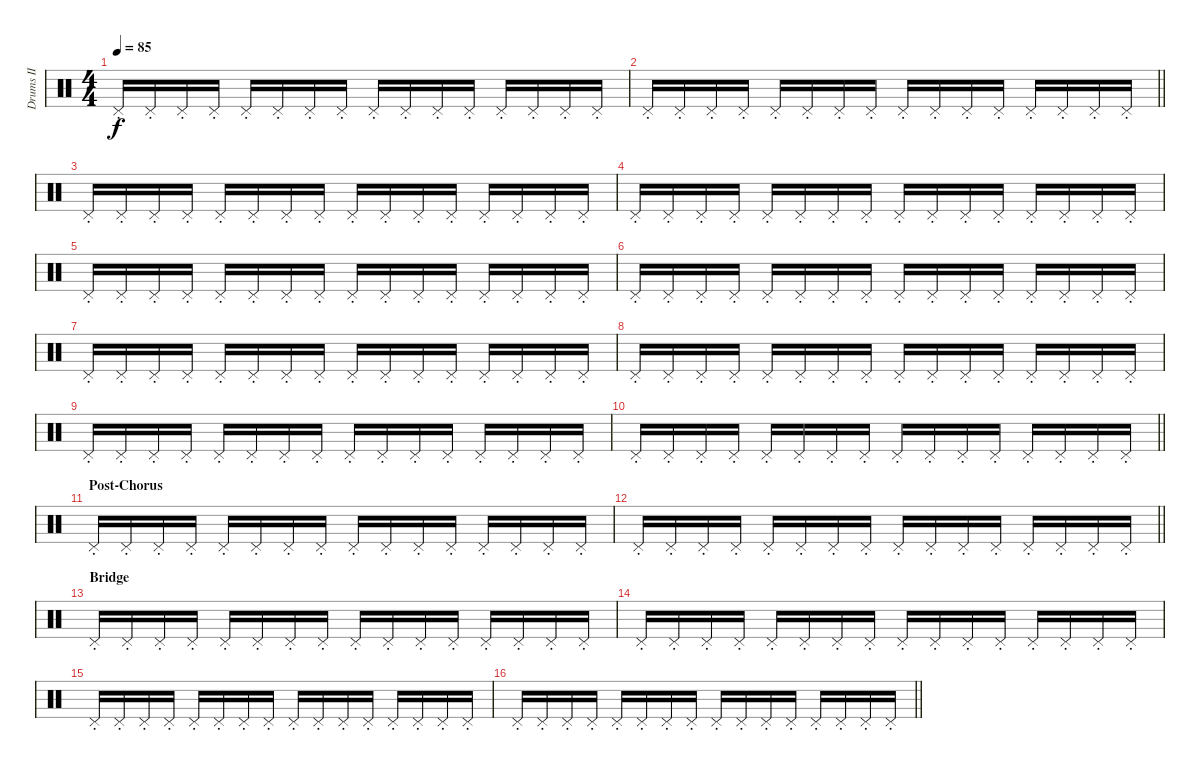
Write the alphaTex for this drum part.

\track ("Drums II" "Drums II") {instrument percussion}
\staff {score}
\articulation defaults
\ts (4 4)
\tempo 85
\clef neutral
\ks c "Pedal Hi-Hat (hit)"{st}.16{dy f} "Pedal Hi-Hat (hit)"{st}.16 "Pedal Hi-Hat (hit)"{st}.16 "Pedal Hi-Hat (hit)"{st}.16 "Pedal Hi-Hat (hit)"{st}.16 "Pedal Hi-Hat (hit)"{st}.16 "Pedal Hi-Hat (hit)"{st}.16 "Pedal Hi-Hat (hit)"{st}.16 "Pedal Hi-Hat (hit)"{st}.16 "Pedal Hi-Hat (hit)"{st}.16 "Pedal Hi-Hat (hit)"{st}.16 "Pedal Hi-Hat (hit)"{st}.16 "Pedal Hi-Hat (hit)"{st}.16 "Pedal Hi-Hat (hit)"{st}.16 "Pedal Hi-Hat (hit)"{st}.16 "Pedal Hi-Hat (hit)"{st}.16
|
\barLineRight lightlight "Pedal Hi-Hat (hit)"{st}.16 "Pedal Hi-Hat (hit)"{st}.16 "Pedal Hi-Hat (hit)"{st}.16 "Pedal Hi-Hat (hit)"{st}.16 "Pedal Hi-Hat (hit)"{st}.16 "Pedal Hi-Hat (hit)"{st}.16 "Pedal Hi-Hat (hit)"{st}.16 "Pedal Hi-Hat (hit)"{st}.16 "Pedal Hi-Hat (hit)"{st}.16 "Pedal Hi-Hat (hit)"{st}.16 "Pedal Hi-Hat (hit)"{st}.16 "Pedal Hi-Hat (hit)"{st}.16 "Pedal Hi-Hat (hit)"{st}.16 "Pedal Hi-Hat (hit)"{st}.16 "Pedal Hi-Hat (hit)"{st}.16 "Pedal Hi-Hat (hit)"{st}.16
|
"Pedal Hi-Hat (hit)"{st}.16 "Pedal Hi-Hat (hit)"{st}.16 "Pedal Hi-Hat (hit)"{st}.16 "Pedal Hi-Hat (hit)"{st}.16 "Pedal Hi-Hat (hit)"{st}.16 "Pedal Hi-Hat (hit)"{st}.16 "Pedal Hi-Hat (hit)"{st}.16 "Pedal Hi-Hat (hit)"{st}.16 "Pedal Hi-Hat (hit)"{st}.16 "Pedal Hi-Hat (hit)"{st}.16 "Pedal Hi-Hat (hit)"{st}.16 "Pedal Hi-Hat (hit)"{st}.16 "Pedal Hi-Hat (hit)"{st}.16 "Pedal Hi-Hat (hit)"{st}.16 "Pedal Hi-Hat (hit)"{st}.16 "Pedal Hi-Hat (hit)"{st}.16 |
"Pedal Hi-Hat (hit)"{st}.16 "Pedal Hi-Hat (hit)"{st}.16 "Pedal Hi-Hat (hit)"{st}.16 "Pedal Hi-Hat (hit)"{st}.16 "Pedal Hi-Hat (hit)"{st}.16 "Pedal Hi-Hat (hit)"{st}.16 "Pedal Hi-Hat (hit)"{st}.16 "Pedal Hi-Hat (hit)"{st}.16 "Pedal Hi-Hat (hit)"{st}.16 "Pedal Hi-Hat (hit)"{st}.16 "Pedal Hi-Hat (hit)"{st}.16 "Pedal Hi-Hat (hit)"{st}.16 "Pedal Hi-Hat (hit)"{st}.16 "Pedal Hi-Hat (hit)"{st}.16 "Pedal Hi-Hat (hit)"{st}.16 "Pedal Hi-Hat (hit)"{st}.16 |
"Pedal Hi-Hat (hit)"{st}.16 "Pedal Hi-Hat (hit)"{st}.16 "Pedal Hi-Hat (hit)"{st}.16 "Pedal Hi-Hat (hit)"{st}.16 "Pedal Hi-Hat (hit)"{st}.16 "Pedal Hi-Hat (hit)"{st}.16 "Pedal Hi-Hat (hit)"{st}.16 "Pedal Hi-Hat (hit)"{st}.16 "Pedal Hi-Hat (hit)"{st}.16 "Pedal Hi-Hat (hit)"{st}.16 "Pedal Hi-Hat (hit)"{st}.16 "Pedal Hi-Hat (hit)"{st}.16 "Pedal Hi-Hat (hit)"{st}.16 "Pedal Hi-Hat (hit)"{st}.16 "Pedal Hi-Hat (hit)"{st}.16 "Pedal Hi-Hat (hit)"{st}.16 |
"Pedal Hi-Hat (hit)"{st}.16 "Pedal Hi-Hat (hit)"{st}.16 "Pedal Hi-Hat (hit)"{st}.16 "Pedal Hi-Hat (hit)"{st}.16 "Pedal Hi-Hat (hit)"{st}.16 "Pedal Hi-Hat (hit)"{st}.16 "Pedal Hi-Hat (hit)"{st}.16 "Pedal Hi-Hat (hit)"{st}.16 "Pedal Hi-Hat (hit)"{st}.16 "Pedal Hi-Hat (hit)"{st}.16 "Pedal Hi-Hat (hit)"{st}.16 "Pedal Hi-Hat (hit)"{st}.16 "Pedal Hi-Hat (hit)"{st}.16 "Pedal Hi-Hat (hit)"{st}.16 "Pedal Hi-Hat (hit)"{st}.16 "Pedal Hi-Hat (hit)"{st}.16 |
"Pedal Hi-Hat (hit)"{st}.16 "Pedal Hi-Hat (hit)"{st}.16 "Pedal Hi-Hat (hit)"{st}.16 "Pedal Hi-Hat (hit)"{st}.16 "Pedal Hi-Hat (hit)"{st}.16 "Pedal Hi-Hat (hit)"{st}.16 "Pedal Hi-Hat (hit)"{st}.16 "Pedal Hi-Hat (hit)"{st}.16 "Pedal Hi-Hat (hit)"{st}.16 "Pedal Hi-Hat (hit)"{st}.16 "Pedal Hi-Hat (hit)"{st}.16 "Pedal Hi-Hat (hit)"{st}.16 "Pedal Hi-Hat (hit)"{st}.16 "Pedal Hi-Hat (hit)"{st}.16 "Pedal Hi-Hat (hit)"{st}.16 "Pedal Hi-Hat (hit)"{st}.16 |
"Pedal Hi-Hat (hit)"{st}.16 "Pedal Hi-Hat (hit)"{st}.16 "Pedal Hi-Hat (hit)"{st}.16 "Pedal Hi-Hat (hit)"{st}.16 "Pedal Hi-Hat (hit)"{st}.16 "Pedal Hi-Hat (hit)"{st}.16 "Pedal Hi-Hat (hit)"{st}.16 "Pedal Hi-Hat (hit)"{st}.16 "Pedal Hi-Hat (hit)"{st}.16 "Pedal Hi-Hat (hit)"{st}.16 "Pedal Hi-Hat (hit)"{st}.16 "Pedal Hi-Hat (hit)"{st}.16 "Pedal Hi-Hat (hit)"{st}.16 "Pedal Hi-Hat (hit)"{st}.16 "Pedal Hi-Hat (hit)"{st}.16 "Pedal Hi-Hat (hit)"{st}.16 |
"Pedal Hi-Hat (hit)"{st}.16 "Pedal Hi-Hat (hit)"{st}.16 "Pedal Hi-Hat (hit)"{st}.16 "Pedal Hi-Hat (hit)"{st}.16 "Pedal Hi-Hat (hit)"{st}.16 "Pedal Hi-Hat (hit)"{st}.16 "Pedal Hi-Hat (hit)"{st}.16 "Pedal Hi-Hat (hit)"{st}.16 "Pedal Hi-Hat (hit)"{st}.16 "Pedal Hi-Hat (hit)"{st}.16 "Pedal Hi-Hat (hit)"{st}.16 "Pedal Hi-Hat (hit)"{st}.16 "Pedal Hi-Hat (hit)"{st}.16 "Pedal Hi-Hat (hit)"{st}.16 "Pedal Hi-Hat (hit)"{st}.16 "Pedal Hi-Hat (hit)"{st}.16 |
\barLineRight lightlight "Pedal Hi-Hat (hit)"{st}.16 "Pedal Hi-Hat (hit)"{st}.16 "Pedal Hi-Hat (hit)"{st}.16 "Pedal Hi-Hat (hit)"{st}.16 "Pedal Hi-Hat (hit)"{st}.16 "Pedal Hi-Hat (hit)"{st}.16 "Pedal Hi-Hat (hit)"{st}.16 "Pedal Hi-Hat (hit)"{st}.16 "Pedal Hi-Hat (hit)"{st}.16 "Pedal Hi-Hat (hit)"{st}.16 "Pedal Hi-Hat (hit)"{st}.16 "Pedal Hi-Hat (hit)"{st}.16 "Pedal Hi-Hat (hit)"{st}.16 "Pedal Hi-Hat (hit)"{st}.16 "Pedal Hi-Hat (hit)"{st}.16 "Pedal Hi-Hat (hit)"{st}.16
|
\section ("" "Post-Chorus")
"Pedal Hi-Hat (hit)"{st}.16 "Pedal Hi-Hat (hit)"{st}.16 "Pedal Hi-Hat (hit)"{st}.16 "Pedal Hi-Hat (hit)"{st}.16 "Pedal Hi-Hat (hit)"{st}.16 "Pedal Hi-Hat (hit)"{st}.16 "Pedal Hi-Hat (hit)"{st}.16 "Pedal Hi-Hat (hit)"{st}.16 "Pedal Hi-Hat (hit)"{st}.16 "Pedal Hi-Hat (hit)"{st}.16 "Pedal Hi-Hat (hit)"{st}.16 "Pedal Hi-Hat (hit)"{st}.16 "Pedal Hi-Hat (hit)"{st}.16 "Pedal Hi-Hat (hit)"{st}.16 "Pedal Hi-Hat (hit)"{st}.16 "Pedal Hi-Hat (hit)"{st}.16 |
\barLineRight lightlight "Pedal Hi-Hat (hit)"{st}.16 "Pedal Hi-Hat (hit)"{st}.16 "Pedal Hi-Hat (hit)"{st}.16 "Pedal Hi-Hat (hit)"{st}.16 "Pedal Hi-Hat (hit)"{st}.16 "Pedal Hi-Hat (hit)"{st}.16 "Pedal Hi-Hat (hit)"{st}.16 "Pedal Hi-Hat (hit)"{st}.16 "Pedal Hi-Hat (hit)"{st}.16 "Pedal Hi-Hat (hit)"{st}.16 "Pedal Hi-Hat (hit)"{st}.16 "Pedal Hi-Hat (hit)"{st}.16 "Pedal Hi-Hat (hit)"{st}.16 "Pedal Hi-Hat (hit)"{st}.16 "Pedal Hi-Hat (hit)"{st}.16 "Pedal Hi-Hat (hit)"{st}.16
|
\section ("" "Bridge")
"Pedal Hi-Hat (hit)"{st}.16 "Pedal Hi-Hat (hit)"{st}.16 "Pedal Hi-Hat (hit)"{st}.16 "Pedal Hi-Hat (hit)"{st}.16 "Pedal Hi-Hat (hit)"{st}.16 "Pedal Hi-Hat (hit)"{st}.16 "Pedal Hi-Hat (hit)"{st}.16 "Pedal Hi-Hat (hit)"{st}.16 "Pedal Hi-Hat (hit)"{st}.16 "Pedal Hi-Hat (hit)"{st}.16 "Pedal Hi-Hat (hit)"{st}.16 "Pedal Hi-Hat (hit)"{st}.16 "Pedal Hi-Hat (hit)"{st}.16 "Pedal Hi-Hat (hit)"{st}.16 "Pedal Hi-Hat (hit)"{st}.16 "Pedal Hi-Hat (hit)"{st}.16 |
"Pedal Hi-Hat (hit)"{st}.16 "Pedal Hi-Hat (hit)"{st}.16 "Pedal Hi-Hat (hit)"{st}.16 "Pedal Hi-Hat (hit)"{st}.16 "Pedal Hi-Hat (hit)"{st}.16 "Pedal Hi-Hat (hit)"{st}.16 "Pedal Hi-Hat (hit)"{st}.16 "Pedal Hi-Hat (hit)"{st}.16 "Pedal Hi-Hat (hit)"{st}.16 "Pedal Hi-Hat (hit)"{st}.16 "Pedal Hi-Hat (hit)"{st}.16 "Pedal Hi-Hat (hit)"{st}.16 "Pedal Hi-Hat (hit)"{st}.16 "Pedal Hi-Hat (hit)"{st}.16 "Pedal Hi-Hat (hit)"{st}.16 "Pedal Hi-Hat (hit)"{st}.16 |
"Pedal Hi-Hat (hit)"{st}.16 "Pedal Hi-Hat (hit)"{st}.16 "Pedal Hi-Hat (hit)"{st}.16 "Pedal Hi-Hat (hit)"{st}.16 "Pedal Hi-Hat (hit)"{st}.16 "Pedal Hi-Hat (hit)"{st}.16 "Pedal Hi-Hat (hit)"{st}.16 "Pedal Hi-Hat (hit)"{st}.16 "Pedal Hi-Hat (hit)"{st}.16 "Pedal Hi-Hat (hit)"{st}.16 "Pedal Hi-Hat (hit)"{st}.16 "Pedal Hi-Hat (hit)"{st}.16 "Pedal Hi-Hat (hit)"{st}.16 "Pedal Hi-Hat (hit)"{st}.16 "Pedal Hi-Hat (hit)"{st}.16 "Pedal Hi-Hat (hit)"{st}.16 |
\barLineRight lightlight "Pedal Hi-Hat (hit)"{st}.16 "Pedal Hi-Hat (hit)"{st}.16 "Pedal Hi-Hat (hit)"{st}.16 "Pedal Hi-Hat (hit)"{st}.16 "Pedal Hi-Hat (hit)"{st}.16 "Pedal Hi-Hat (hit)"{st}.16 "Pedal Hi-Hat (hit)"{st}.16 "Pedal Hi-Hat (hit)"{st}.16 "Pedal Hi-Hat (hit)"{st}.16 "Pedal Hi-Hat (hit)"{st}.16 "Pedal Hi-Hat (hit)"{st}.16 "Pedal Hi-Hat (hit)"{st}.16 "Pedal Hi-Hat (hit)"{st}.16 "Pedal Hi-Hat (hit)"{st}.16 "Pedal Hi-Hat (hit)"{st}.16 "Pedal Hi-Hat (hit)"{st}.16
